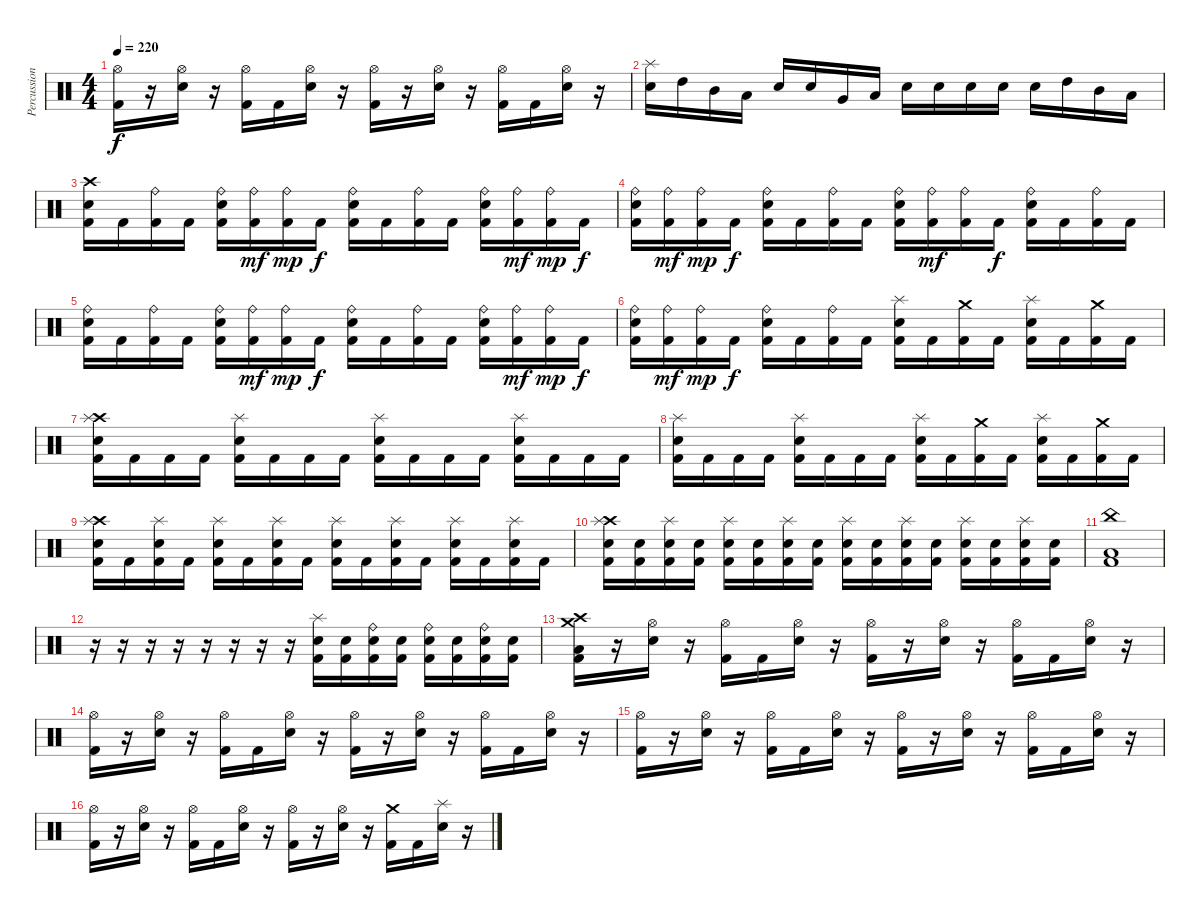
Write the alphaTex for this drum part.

\track ("Percussion" "Percussion") {instrument percussion}
\staff {score}
\articulation defaults
\ts (4 4)
\tempo 220
\clef neutral
\ks c
("Hi-Hat (open)" "Kick (hit) 2").16{dy f} r.16 ("Hi-Hat (open)" "Electric Snare (hit)").16 r.16 ("Hi-Hat (open)" "Kick (hit) 2").16 "Kick (hit) 2".16 ("Hi-Hat (open)" "Electric Snare (hit)").16 r.16 ("Hi-Hat (open)" "Kick (hit) 2").16 r.16 ("Hi-Hat (open)" "Electric Snare (hit)").16 r.16 ("Hi-Hat (open)" "Kick (hit) 2").16 "Kick (hit) 2".16 ("Hi-Hat (open)" "Electric Snare (hit)").16 r.16 |
("Splash (hit)" "Electric Snare (hit)").16 "High Tom (hit)".16 "Mid Tom (hit)".16 "Low Tom (hit)".16 "Electric Snare (hit)".16 "Electric Snare (hit)".16 "Very Low Tom (hit)".16 "Low Floor Tom (hit)".16 "Electric Snare (hit)".16 "Electric Snare (hit)".16 "Electric Snare (hit)".16 "Electric Snare (hit)".16 "Electric Snare (hit)".16 "High Tom (hit)".16 "Mid Tom (hit)".16 "Low Tom (hit)".16 |
("Crash high (hit)" "Electric Snare (hit)" "Kick (hit) 2").16 "Kick (hit) 2".16 ("Ride (bell)" "Kick (hit) 2").16 "Kick (hit) 2".16 ("Ride (bell)" "Electric Snare (hit)" "Kick (hit) 2").16 ("Ride (bell)" "Kick (hit) 2").16{dy mf} ("Ride (bell)" "Kick (hit) 2").16{dy mp} "Kick (hit) 2".16{dy f} ("Ride (bell)" "Electric Snare (hit)" "Kick (hit) 2").16 "Kick (hit) 2".16 ("Ride (bell)" "Kick (hit) 2").16 "Kick (hit) 2".16 ("Ride (bell)" "Electric Snare (hit)" "Kick (hit) 2").16 ("Ride (bell)" "Kick (hit) 2").16{dy mf} ("Ride (bell)" "Kick (hit) 2").16{dy mp} "Kick (hit) 2".16{dy f} |
("Ride (bell)" "Electric Snare (hit)" "Kick (hit) 2").16 ("Ride (bell)" "Kick (hit) 2").16{dy mf} ("Ride (bell)" "Kick (hit) 2").16{dy mp} "Kick (hit) 2".16{dy f} ("Ride (bell)" "Electric Snare (hit)" "Kick (hit) 2").16 "Kick (hit) 2".16 ("Ride (bell)" "Kick (hit) 2").16 "Kick (hit) 2".16 ("Ride (bell)" "Electric Snare (hit)" "Kick (hit) 2").16 ("Ride (bell)" "Kick (hit) 2").16{dy mf} ("Ride (bell)" "Kick (hit) 2").16 "Kick (hit) 2".16{dy f} ("Ride (bell)" "Electric Snare (hit)" "Kick (hit) 2").16 "Kick (hit) 2".16 ("Ride (bell)" "Kick (hit) 2").16 "Kick (hit) 2".16 |
("Ride (bell)" "Electric Snare (hit)" "Kick (hit) 2").16 "Kick (hit) 2".16 ("Ride (bell)" "Kick (hit) 2").16 "Kick (hit) 2".16 ("Ride (bell)" "Electric Snare (hit)" "Kick (hit) 2").16 ("Ride (bell)" "Kick (hit) 2").16{dy mf} ("Ride (bell)" "Kick (hit) 2").16{dy mp} "Kick (hit) 2".16{dy f} ("Ride (bell)" "Electric Snare (hit)" "Kick (hit) 2").16 "Kick (hit) 2".16 ("Ride (bell)" "Kick (hit) 2").16 "Kick (hit) 2".16 ("Ride (bell)" "Electric Snare (hit)" "Kick (hit) 2").16 ("Ride (bell)" "Kick (hit) 2").16{dy mf} ("Ride (bell)" "Kick (hit) 2").16{dy mp} "Kick (hit) 2".16{dy f} |
("Ride (bell)" "Electric Snare (hit)" "Kick (hit) 2").16 ("Ride (bell)" "Kick (hit) 2").16{dy mf} ("Ride (bell)" "Kick (hit) 2").16{dy mp} "Kick (hit) 2".16{dy f} ("Ride (bell)" "Electric Snare (hit)" "Kick (hit) 2").16 "Kick (hit) 2".16 ("Ride (bell)" "Kick (hit) 2").16 "Kick (hit) 2".16 ("Splash (hit)" "Electric Snare (hit)" "Kick (hit) 2").16 "Kick (hit) 2".16 ("Crash medium (hit)" "Kick (hit) 2").16 "Kick (hit) 2".16 ("Splash (hit)" "Electric Snare (hit)" "Kick (hit) 2").16 "Kick (hit) 2".16 ("Crash medium (hit)" "Kick (hit) 2").16 "Kick (hit) 2".16 |
("Crash high (hit)" "Splash (hit)" "Electric Snare (hit)" "Kick (hit) 2").16 "Kick (hit) 2".16 "Kick (hit) 2".16 "Kick (hit) 2".16 ("Splash (hit)" "Electric Snare (hit)" "Kick (hit) 2").16 "Kick (hit) 2".16 "Kick (hit) 2".16 "Kick (hit) 2".16 ("Splash (hit)" "Electric Snare (hit)" "Kick (hit) 2").16 "Kick (hit) 2".16 "Kick (hit) 2".16 "Kick (hit) 2".16 ("Splash (hit)" "Electric Snare (hit)" "Kick (hit) 2").16 "Kick (hit) 2".16 "Kick (hit) 2".16 "Kick (hit) 2".16 |
("Splash (hit)" "Electric Snare (hit)" "Kick (hit) 2").16 "Kick (hit) 2".16 "Kick (hit) 2".16 "Kick (hit) 2".16 ("Splash (hit)" "Electric Snare (hit)" "Kick (hit) 2").16 "Kick (hit) 2".16 "Kick (hit) 2".16 "Kick (hit) 2".16 ("Splash (hit)" "Electric Snare (hit)" "Kick (hit) 2").16 "Kick (hit) 2".16 ("Crash medium (hit)" "Kick (hit) 2").16 "Kick (hit) 2".16 ("Splash (hit)" "Electric Snare (hit)" "Kick (hit) 2").16 "Kick (hit) 2".16 ("Crash medium (hit)" "Kick (hit) 2").16 "Kick (hit) 2".16 |
("Crash high (hit)" "Splash (hit)" "Electric Snare (hit)" "Kick (hit) 2").16 "Kick (hit) 2".16 ("Splash (hit)" "Electric Snare (hit)" "Kick (hit) 2").16 "Kick (hit) 2".16 ("Splash (hit)" "Electric Snare (hit)" "Kick (hit) 2").16 "Kick (hit) 2".16 ("Splash (hit)" "Electric Snare (hit)" "Kick (hit) 2").16 "Kick (hit) 2".16 ("Splash (hit)" "Electric Snare (hit)" "Kick (hit) 2").16 "Kick (hit) 2".16 ("Splash (hit)" "Electric Snare (hit)" "Kick (hit) 2").16 "Kick (hit) 2".16 ("Splash (hit)" "Electric Snare (hit)" "Kick (hit) 2").16 "Kick (hit) 2".16 ("Splash (hit)" "Electric Snare (hit)" "Kick (hit) 2").16 "Kick (hit) 2".16 |
("Crash high (hit)" "Splash (hit)" "Electric Snare (hit)" "Kick (hit) 2").16 ("Electric Snare (hit)" "Kick (hit) 2").16 ("Splash (hit)" "Electric Snare (hit)" "Kick (hit) 2").16 ("Electric Snare (hit)" "Kick (hit) 2").16 ("Splash (hit)" "Electric Snare (hit)" "Kick (hit) 2").16 ("Electric Snare (hit)" "Kick (hit) 2").16 ("Splash (hit)" "Electric Snare (hit)" "Kick (hit) 2").16 ("Electric Snare (hit)" "Kick (hit) 2").16 ("Splash (hit)" "Electric Snare (hit)" "Kick (hit) 2").16 ("Electric Snare (hit)" "Kick (hit) 2").16 ("Splash (hit)" "Electric Snare (hit)" "Kick (hit) 2").16 ("Electric Snare (hit)" "Kick (hit) 2").16 ("Splash (hit)" "Electric Snare (hit)" "Kick (hit) 2").16 ("Electric Snare (hit)" "Kick (hit) 2").16 ("Splash (hit)" "Electric Snare (hit)" "Kick (hit) 2").16 ("Electric Snare (hit)" "Kick (hit) 2").16 |
("China (hit)" "Low Floor Tom (hit)" "Kick (hit) 2").1 |
r.16 r.16 r.16 r.16 r.16 r.16 r.16 r.16 ("Splash (hit)" "Electric Snare (hit)" "Kick (hit) 2").16 ("Electric Snare (hit)" "Kick (hit) 2").16 ("Ride (bell)" "Electric Snare (hit)" "Kick (hit) 2").16 ("Electric Snare (hit)" "Kick (hit) 2").16 ("Ride (bell)" "Electric Snare (hit)" "Kick (hit) 2").16 ("Electric Snare (hit)" "Kick (hit) 2").16 ("Ride (bell)" "Electric Snare (hit)" "Kick (hit) 2").16 ("Electric Snare (hit)" "Kick (hit) 2").16 |
("Crash medium (hit)" "Crash high (hit)" "Low Floor Tom (hit)" "Kick (hit) 2").16 r.16 ("Hi-Hat (open)" "Electric Snare (hit)").16 r.16 ("Hi-Hat (open)" "Kick (hit) 2").16 "Kick (hit) 2".16 ("Hi-Hat (open)" "Electric Snare (hit)").16 r.16 ("Hi-Hat (open)" "Kick (hit) 2").16 r.16 ("Hi-Hat (open)" "Electric Snare (hit)").16 r.16 ("Hi-Hat (open)" "Kick (hit) 2").16 "Kick (hit) 2".16 ("Hi-Hat (open)" "Electric Snare (hit)").16 r.16 |
("Hi-Hat (open)" "Kick (hit) 2").16 r.16 ("Hi-Hat (open)" "Electric Snare (hit)").16 r.16 ("Hi-Hat (open)" "Kick (hit) 2").16 "Kick (hit) 2".16 ("Hi-Hat (open)" "Electric Snare (hit)").16 r.16 ("Hi-Hat (open)" "Kick (hit) 2").16 r.16 ("Hi-Hat (open)" "Electric Snare (hit)").16 r.16 ("Hi-Hat (open)" "Kick (hit) 2").16 "Kick (hit) 2".16 ("Hi-Hat (open)" "Electric Snare (hit)").16 r.16 |
("Hi-Hat (open)" "Kick (hit) 2").16 r.16 ("Hi-Hat (open)" "Electric Snare (hit)").16 r.16 ("Hi-Hat (open)" "Kick (hit) 2").16 "Kick (hit) 2".16 ("Hi-Hat (open)" "Electric Snare (hit)").16 r.16 ("Hi-Hat (open)" "Kick (hit) 2").16 r.16 ("Hi-Hat (open)" "Electric Snare (hit)").16 r.16 ("Hi-Hat (open)" "Kick (hit) 2").16 "Kick (hit) 2".16 ("Hi-Hat (open)" "Electric Snare (hit)").16 r.16 |
("Hi-Hat (open)" "Kick (hit) 2").16 r.16 ("Hi-Hat (open)" "Electric Snare (hit)").16 r.16 ("Hi-Hat (open)" "Kick (hit) 2").16 "Kick (hit) 2".16 ("Hi-Hat (open)" "Electric Snare (hit)").16 r.16 ("Hi-Hat (open)" "Kick (hit) 2").16 r.16 ("Hi-Hat (open)" "Electric Snare (hit)").16 r.16 ("Crash medium (hit)" "Kick (hit) 2").16 "Kick (hit) 2".16 ("Splash (hit)" "Electric Snare (hit)").16 r.16
